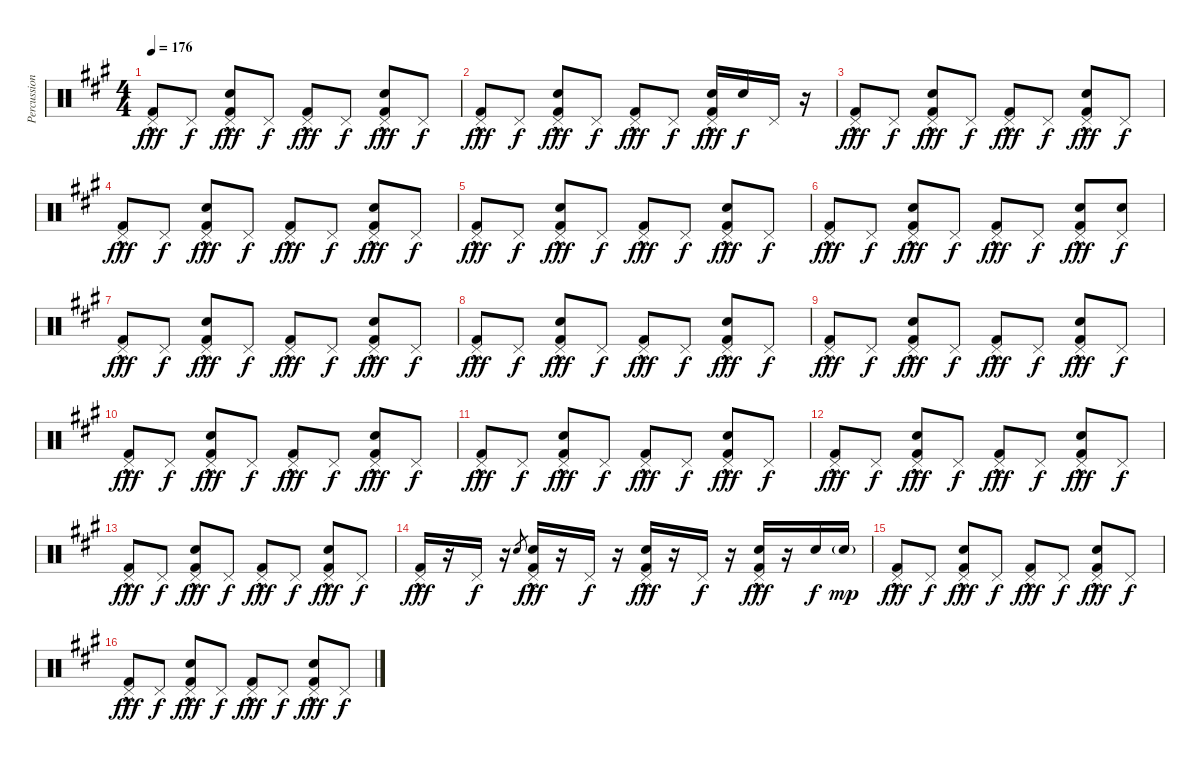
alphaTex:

\track ("Percussion" "Percussion") {instrument percussion}
\staff {score}
\articulation defaults
\ts (4 4)
\tempo 176
\clef neutral
\ks a
("Pedal Hi-Hat (hit)"{hac} "Kick (hit) 2").8{dy fff} "Pedal Hi-Hat (hit)".8{dy f} ("Pedal Hi-Hat (hit)"{hac} "Snare (hit) 2" "Kick (hit) 2").8{dy fff} "Pedal Hi-Hat (hit)".8{dy f} ("Pedal Hi-Hat (hit)"{hac} "Kick (hit) 2").8{dy fff} "Pedal Hi-Hat (hit)".8{dy f} ("Pedal Hi-Hat (hit)"{hac} "Snare (hit) 2" "Kick (hit) 2").8{dy fff} "Pedal Hi-Hat (hit)".8{dy f} |
("Pedal Hi-Hat (hit)"{hac} "Kick (hit) 2").8{dy fff} "Pedal Hi-Hat (hit)".8{dy f} ("Pedal Hi-Hat (hit)"{hac} "Snare (hit) 2" "Kick (hit) 2").8{dy fff} "Pedal Hi-Hat (hit)".8{dy f} ("Pedal Hi-Hat (hit)"{hac} "Kick (hit) 2").8{dy fff} "Pedal Hi-Hat (hit)".8{dy f} ("Pedal Hi-Hat (hit)"{hac} "Snare (hit) 2" "Kick (hit) 2").16{dy fff} "Snare (hit) 2".16{dy f} "Pedal Hi-Hat (hit)".16 r.16 |
("Pedal Hi-Hat (hit)"{hac} "Kick (hit) 2").8{dy fff} "Pedal Hi-Hat (hit)".8{dy f} ("Pedal Hi-Hat (hit)"{hac} "Snare (hit) 2" "Kick (hit) 2").8{dy fff} "Pedal Hi-Hat (hit)".8{dy f} ("Pedal Hi-Hat (hit)"{hac} "Kick (hit) 2").8{dy fff} "Pedal Hi-Hat (hit)".8{dy f} ("Pedal Hi-Hat (hit)"{hac} "Snare (hit) 2" "Kick (hit) 2").8{dy fff} "Pedal Hi-Hat (hit)".8{dy f} |
("Pedal Hi-Hat (hit)"{hac} "Kick (hit) 2").8{dy fff} "Pedal Hi-Hat (hit)".8{dy f} ("Pedal Hi-Hat (hit)"{hac} "Snare (hit) 2" "Kick (hit) 2").8{dy fff} "Pedal Hi-Hat (hit)".8{dy f} ("Pedal Hi-Hat (hit)"{hac} "Kick (hit) 2").8{dy fff} "Pedal Hi-Hat (hit)".8{dy f} ("Pedal Hi-Hat (hit)"{hac} "Snare (hit) 2" "Kick (hit) 2").8{dy fff} "Pedal Hi-Hat (hit)".8{dy f} |
("Pedal Hi-Hat (hit)"{hac} "Kick (hit) 2").8{dy fff} "Pedal Hi-Hat (hit)".8{dy f} ("Pedal Hi-Hat (hit)"{hac} "Snare (hit) 2" "Kick (hit) 2").8{dy fff} "Pedal Hi-Hat (hit)".8{dy f} ("Pedal Hi-Hat (hit)"{hac} "Kick (hit) 2").8{dy fff} "Pedal Hi-Hat (hit)".8{dy f} ("Pedal Hi-Hat (hit)"{hac} "Snare (hit) 2" "Kick (hit) 2").8{dy fff} "Pedal Hi-Hat (hit)".8{dy f} |
("Pedal Hi-Hat (hit)"{hac} "Kick (hit) 2").8{dy fff} "Pedal Hi-Hat (hit)".8{dy f} ("Pedal Hi-Hat (hit)"{hac} "Snare (hit) 2" "Kick (hit) 2").8{dy fff} "Pedal Hi-Hat (hit)".8{dy f} ("Pedal Hi-Hat (hit)"{hac} "Kick (hit) 2").8{dy fff} "Pedal Hi-Hat (hit)".8{dy f} ("Pedal Hi-Hat (hit)"{hac} "Snare (hit) 2" "Kick (hit) 2").8{dy fff} ("Pedal Hi-Hat (hit)" "Snare (hit) 2").8{dy f} |
("Pedal Hi-Hat (hit)"{hac} "Kick (hit) 2").8{dy fff} "Pedal Hi-Hat (hit)".8{dy f} ("Pedal Hi-Hat (hit)"{hac} "Snare (hit) 2" "Kick (hit) 2").8{dy fff} "Pedal Hi-Hat (hit)".8{dy f} ("Pedal Hi-Hat (hit)"{hac} "Kick (hit) 2").8{dy fff} "Pedal Hi-Hat (hit)".8{dy f} ("Pedal Hi-Hat (hit)"{hac} "Snare (hit) 2" "Kick (hit) 2").8{dy fff} "Pedal Hi-Hat (hit)".8{dy f} |
("Pedal Hi-Hat (hit)"{hac} "Kick (hit) 2").8{dy fff} "Pedal Hi-Hat (hit)".8{dy f} ("Pedal Hi-Hat (hit)"{hac} "Snare (hit) 2" "Kick (hit) 2").8{dy fff} "Pedal Hi-Hat (hit)".8{dy f} ("Pedal Hi-Hat (hit)"{hac} "Kick (hit) 2").8{dy fff} "Pedal Hi-Hat (hit)".8{dy f} ("Pedal Hi-Hat (hit)"{hac} "Snare (hit) 2" "Kick (hit) 2").8{dy fff} "Pedal Hi-Hat (hit)".8{dy f} |
("Pedal Hi-Hat (hit)"{hac} "Kick (hit) 2").8{dy fff} "Pedal Hi-Hat (hit)".8{dy f} ("Pedal Hi-Hat (hit)"{hac} "Snare (hit) 2" "Kick (hit) 2").8{dy fff} "Pedal Hi-Hat (hit)".8{dy f} ("Pedal Hi-Hat (hit)"{hac} "Kick (hit) 2").8{dy fff} "Pedal Hi-Hat (hit)".8{dy f} ("Pedal Hi-Hat (hit)"{hac} "Snare (hit) 2" "Kick (hit) 2").8{dy fff} "Pedal Hi-Hat (hit)".8{dy f} |
("Pedal Hi-Hat (hit)"{hac} "Kick (hit) 2").8{dy fff} "Pedal Hi-Hat (hit)".8{dy f} ("Pedal Hi-Hat (hit)"{hac} "Snare (hit) 2" "Kick (hit) 2").8{dy fff} "Pedal Hi-Hat (hit)".8{dy f} ("Pedal Hi-Hat (hit)"{hac} "Kick (hit) 2").8{dy fff} "Pedal Hi-Hat (hit)".8{dy f} ("Pedal Hi-Hat (hit)"{hac} "Snare (hit) 2" "Kick (hit) 2").8{dy fff} "Pedal Hi-Hat (hit)".8{dy f} |
("Pedal Hi-Hat (hit)"{hac} "Kick (hit) 2").8{dy fff} "Pedal Hi-Hat (hit)".8{dy f} ("Pedal Hi-Hat (hit)"{hac} "Snare (hit) 2" "Kick (hit) 2").8{dy fff} "Pedal Hi-Hat (hit)".8{dy f} ("Pedal Hi-Hat (hit)"{hac} "Kick (hit) 2").8{dy fff} "Pedal Hi-Hat (hit)".8{dy f} ("Pedal Hi-Hat (hit)"{hac} "Snare (hit) 2" "Kick (hit) 2").8{dy fff} "Pedal Hi-Hat (hit)".8{dy f} |
("Pedal Hi-Hat (hit)"{hac} "Kick (hit) 2").8{dy fff} "Pedal Hi-Hat (hit)".8{dy f} ("Pedal Hi-Hat (hit)"{hac} "Snare (hit) 2" "Kick (hit) 2").8{dy fff} "Pedal Hi-Hat (hit)".8{dy f} ("Pedal Hi-Hat (hit)"{hac} "Kick (hit) 2").8{dy fff} "Pedal Hi-Hat (hit)".8{dy f} ("Pedal Hi-Hat (hit)"{hac} "Snare (hit) 2" "Kick (hit) 2").8{dy fff} "Pedal Hi-Hat (hit)".8{dy f} |
("Pedal Hi-Hat (hit)"{hac} "Kick (hit) 2").8{dy fff} "Pedal Hi-Hat (hit)".8{dy f} ("Pedal Hi-Hat (hit)"{hac} "Snare (hit) 2" "Kick (hit) 2").8{dy fff} "Pedal Hi-Hat (hit)".8{dy f} ("Pedal Hi-Hat (hit)"{hac} "Kick (hit) 2").8{dy fff} "Pedal Hi-Hat (hit)".8{dy f} ("Pedal Hi-Hat (hit)"{hac} "Snare (hit) 2" "Kick (hit) 2").8{dy fff} "Pedal Hi-Hat (hit)".8{dy f} |
("Pedal Hi-Hat (hit)"{hac} "Kick (hit) 2").16{dy fff} r.16 "Pedal Hi-Hat (hit)".16{dy f} r.16 "Snare (hit) 2".8{gr} ("Pedal Hi-Hat (hit)"{hac} "Snare (hit) 2" "Kick (hit) 2").16{dy fff} r.16 "Pedal Hi-Hat (hit)".16{dy f} r.16 ("Pedal Hi-Hat (hit)"{hac} "Snare (hit) 2" "Kick (hit) 2").16{dy fff} r.16 "Pedal Hi-Hat (hit)".16{dy f} r.16 ("Pedal Hi-Hat (hit)"{hac} "Snare (hit) 2" "Kick (hit) 2").16{dy fff} r.16 "Snare (hit) 2".16{dy f} "Snare (hit) 2"{g}.16{dy mp} |
("Pedal Hi-Hat (hit)"{hac} "Kick (hit) 2").8{dy fff} "Pedal Hi-Hat (hit)".8{dy f} ("Pedal Hi-Hat (hit)"{hac} "Snare (hit) 2" "Kick (hit) 2").8{dy fff} "Pedal Hi-Hat (hit)".8{dy f} ("Pedal Hi-Hat (hit)"{hac} "Kick (hit) 2").8{dy fff} "Pedal Hi-Hat (hit)".8{dy f} ("Pedal Hi-Hat (hit)"{hac} "Snare (hit) 2" "Kick (hit) 2").8{dy fff} "Pedal Hi-Hat (hit)".8{dy f} |
("Pedal Hi-Hat (hit)"{hac} "Kick (hit) 2").8{dy fff} "Pedal Hi-Hat (hit)".8{dy f} ("Pedal Hi-Hat (hit)"{hac} "Snare (hit) 2" "Kick (hit) 2").8{dy fff} "Pedal Hi-Hat (hit)".8{dy f} ("Pedal Hi-Hat (hit)"{hac} "Kick (hit) 2").8{dy fff} "Pedal Hi-Hat (hit)".8{dy f} ("Pedal Hi-Hat (hit)"{hac} "Snare (hit) 2" "Kick (hit) 2").8{dy fff} "Pedal Hi-Hat (hit)".8{dy f}
